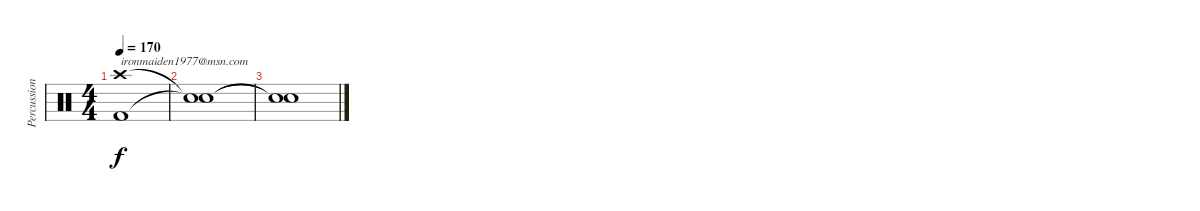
\track ("Percussion" "Percussion") {instrument percussion}
\staff {score}
\articulation defaults
\ts (4 4)
\tempo 170
\clef neutral
\ks c
("Crash high (hit)" "Kick (hit) 2").1{txt "ironmaiden1977@msn.com" dy f} |
("Snare (hit)"{t} "Snare (hit)"{t}).1 |
("Snare (hit)"{t} "Snare (hit)"{t}).1
